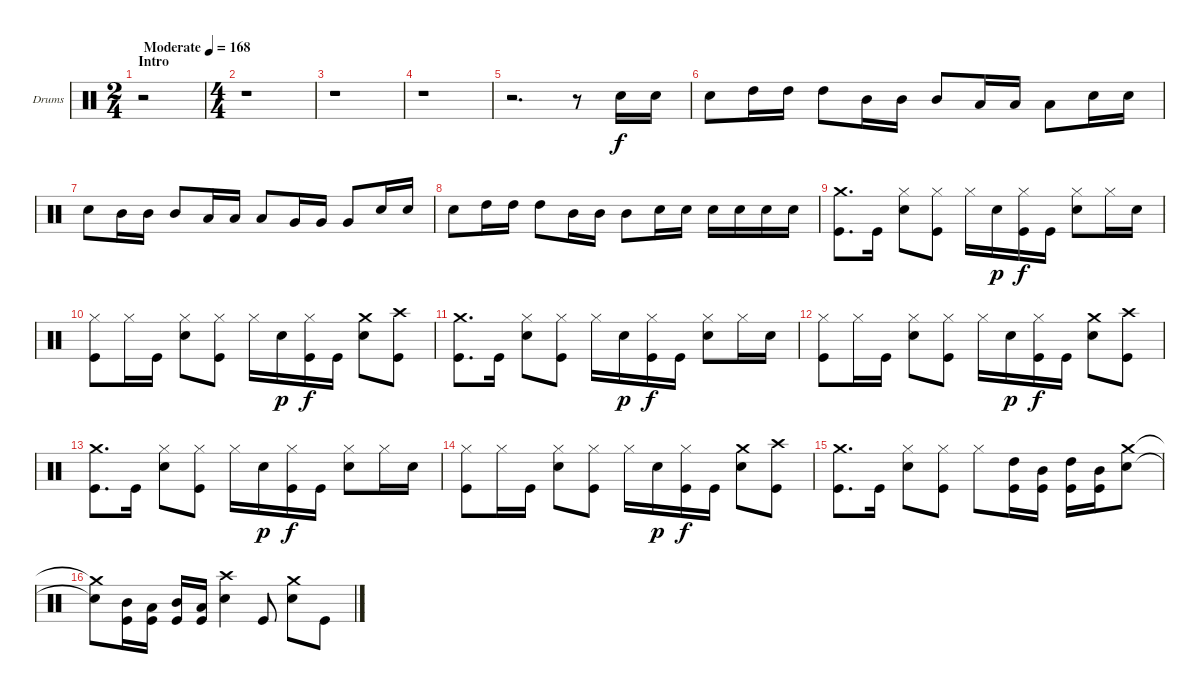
\bracketExtendMode groupsimilarinstruments
\firstSystemTrackNameOrientation horizontal
\otherSystemsTrackNameOrientation horizontal
\track ("Drumkit" "Drums") {instrument percussion}
\staff {score}
\articulation defaults
\ts (2 4)
\beaming (8 1 1 1 1)
\section ("" "Intro")
\tempo (168 "Moderate")
\clef neutral
\ks c
r.2{dy f} |
\ts (4 4)
\beaming (8 2 2 2 2)
r.1 |
r.1 |
r.1 |
r.2{d} r.8 "Snare (hit) 2".16 "Snare (hit) 2".16 |
"Snare (hit) 2".8 "High Tom (hit)".16 "High Tom (hit)".16 "High Tom (hit)".8 "Mid Tom (hit)".16 "Mid Tom (hit)".16 "Mid Tom (hit)".8 "Low Tom (hit)".16 "Low Tom (hit)".16 "Low Tom (hit)".8 "Snare (hit) 2".16 "Snare (hit) 2".16 |
"Snare (hit) 2".8 "Mid Tom (hit)".16 "Mid Tom (hit)".16 "Mid Tom (hit)".8 "Low Tom (hit)".16 "Low Tom (hit)".16 "Low Tom (hit)".8 "Very Low Tom (hit)".16 "Very Low Tom (hit)".16 "Very Low Tom (hit)".8 "Snare (hit) 2".16 "Snare (hit) 2".16 |
"Snare (hit) 2".8 "High Tom (hit)".16 "High Tom (hit)".16 "High Tom (hit)".8 "Mid Tom (hit)".16 "Mid Tom (hit)".16 "Mid Tom (hit)".8 "Snare (hit) 2".16 "Snare (hit) 2".16 "Snare (hit) 2".16 "Snare (hit) 2".16 "Snare (hit) 2".16 "Snare (hit) 2".16 |
("Crash medium (hit)" "Kick (hit)").8{d} "Kick (hit)".16 ("Hi-Hat (closed)" "Snare (hit) 2").8 ("Hi-Hat (closed)" "Kick (hit)").8 "Hi-Hat (closed)".16 "Snare (hit) 2".16{dy p} ("Hi-Hat (closed)" "Kick (hit)").16{dy f} "Kick (hit)".16 ("Hi-Hat (closed)" "Snare (hit) 2").8 "Hi-Hat (closed)".16 "Snare (hit) 2".16 |
("Hi-Hat (closed)" "Kick (hit)").8 "Hi-Hat (closed)".16 "Kick (hit)".16 ("Hi-Hat (closed)" "Snare (hit) 2").8 ("Hi-Hat (closed)" "Kick (hit)").8 "Hi-Hat (closed)".16 "Snare (hit) 2".16{dy p} ("Hi-Hat (closed)" "Kick (hit)").16{dy f} "Kick (hit)".16 ("Crash medium (hit)" "Snare (hit) 2").8 ("Crash high (hit)" "Kick (hit)").8 |
("Crash medium (hit)" "Kick (hit)").8{d} "Kick (hit)".16 ("Hi-Hat (closed)" "Snare (hit) 2").8 ("Hi-Hat (closed)" "Kick (hit)").8 "Hi-Hat (closed)".16 "Snare (hit) 2".16{dy p} ("Hi-Hat (closed)" "Kick (hit)").16{dy f} "Kick (hit)".16 ("Hi-Hat (closed)" "Snare (hit) 2").8 "Hi-Hat (closed)".16 "Snare (hit) 2".16 |
("Hi-Hat (closed)" "Kick (hit)").8 "Hi-Hat (closed)".16 "Kick (hit)".16 ("Hi-Hat (closed)" "Snare (hit) 2").8 ("Hi-Hat (closed)" "Kick (hit)").8 "Hi-Hat (closed)".16 "Snare (hit) 2".16{dy p} ("Hi-Hat (closed)" "Kick (hit)").16{dy f} "Kick (hit)".16 ("Crash medium (hit)" "Snare (hit) 2").8 ("Crash high (hit)" "Kick (hit)").8 |
("Crash medium (hit)" "Kick (hit)").8{d} "Kick (hit)".16 ("Hi-Hat (closed)" "Snare (hit) 2").8 ("Hi-Hat (closed)" "Kick (hit)").8 "Hi-Hat (closed)".16 "Snare (hit) 2".16{dy p} ("Hi-Hat (closed)" "Kick (hit)").16{dy f} "Kick (hit)".16 ("Hi-Hat (closed)" "Snare (hit) 2").8 "Hi-Hat (closed)".16 "Snare (hit) 2".16 |
("Hi-Hat (closed)" "Kick (hit)").8 "Hi-Hat (closed)".16 "Kick (hit)".16 ("Hi-Hat (closed)" "Snare (hit) 2").8 ("Hi-Hat (closed)" "Kick (hit)").8 "Hi-Hat (closed)".16 "Snare (hit) 2".16{dy p} ("Hi-Hat (closed)" "Kick (hit)").16{dy f} "Kick (hit)".16 ("Crash medium (hit)" "Snare (hit) 2").8 ("Crash high (hit)" "Kick (hit)").8 |
("Crash medium (hit)" "Kick (hit)").8{d} "Kick (hit)".16 ("Hi-Hat (closed)" "Snare (hit) 2").8 ("Hi-Hat (closed)" "Kick (hit)").8 "Hi-Hat (closed)".8 ("High Tom (hit)" "Kick (hit)").16 ("Mid Tom (hit)" "Kick (hit)").16 ("High Tom (hit)" "Kick (hit)").16 ("Mid Tom (hit)" "Kick (hit)").16 ("Crash medium (hit)" "Snare (hit) 2").8 |
("Crash medium (hit)"{t} "Snare (hit) 2"{t}).8 ("Mid Tom (hit)" "Kick (hit)").16 ("Low Tom (hit)" "Kick (hit)").16 ("Mid Tom (hit)" "Kick (hit)").16 ("Low Tom (hit)" "Kick (hit)").16 ("Crash high (hit)" "Snare (hit) 2").4 "Kick (hit)".8 ("Crash medium (hit)" "Snare (hit) 2").8 "Kick (hit)".8
